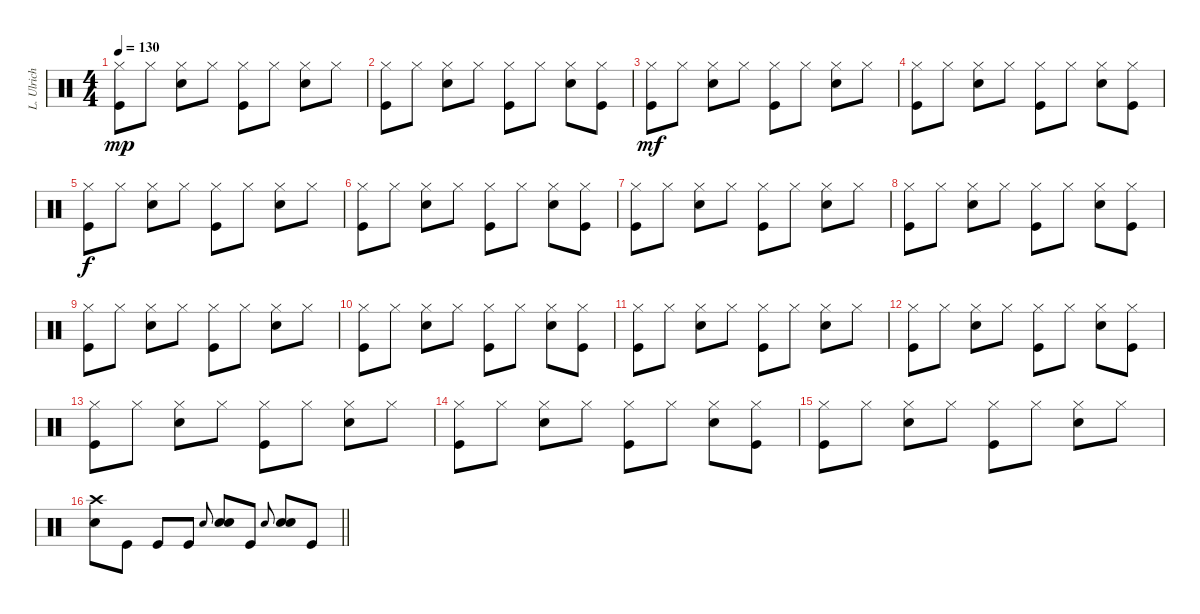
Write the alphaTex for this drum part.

\track ("L. Ulrich" "L. Ulrich") {instrument percussion}
\staff {score}
\articulation defaults
\ts (4 4)
\tempo 130
\clef neutral
\ks c
("Hi-Hat (closed)" "Kick (hit)").8{dy mp} "Hi-Hat (closed)".8 ("Hi-Hat (closed)" "Snare (hit) 2").8 "Hi-Hat (closed)".8 ("Hi-Hat (closed)" "Kick (hit)").8 "Hi-Hat (closed)".8 ("Hi-Hat (closed)" "Snare (hit) 2").8 "Hi-Hat (closed)".8 |
("Hi-Hat (closed)" "Kick (hit)").8 "Hi-Hat (closed)".8 ("Hi-Hat (closed)" "Snare (hit) 2").8 "Hi-Hat (closed)".8 ("Hi-Hat (closed)" "Kick (hit)").8 "Hi-Hat (closed)".8 ("Hi-Hat (closed)" "Snare (hit) 2").8 ("Hi-Hat (closed)" "Kick (hit)").8 |
("Hi-Hat (closed)" "Kick (hit)").8{dy mf} "Hi-Hat (closed)".8 ("Hi-Hat (closed)" "Snare (hit) 2").8 "Hi-Hat (closed)".8 ("Hi-Hat (closed)" "Kick (hit)").8 "Hi-Hat (closed)".8 ("Hi-Hat (closed)" "Snare (hit) 2").8 "Hi-Hat (closed)".8 |
("Hi-Hat (closed)" "Kick (hit)").8 "Hi-Hat (closed)".8 ("Hi-Hat (closed)" "Snare (hit) 2").8 "Hi-Hat (closed)".8 ("Hi-Hat (closed)" "Kick (hit)").8 "Hi-Hat (closed)".8 ("Hi-Hat (closed)" "Snare (hit) 2").8 ("Hi-Hat (closed)" "Kick (hit)").8 |
("Hi-Hat (closed)" "Kick (hit)").8{dy f} "Hi-Hat (closed)".8 ("Hi-Hat (closed)" "Snare (hit) 2").8 "Hi-Hat (closed)".8 ("Hi-Hat (closed)" "Kick (hit)").8 "Hi-Hat (closed)".8 ("Hi-Hat (closed)" "Snare (hit) 2").8 "Hi-Hat (closed)".8 |
("Hi-Hat (closed)" "Kick (hit)").8 "Hi-Hat (closed)".8 ("Hi-Hat (closed)" "Snare (hit) 2").8 "Hi-Hat (closed)".8 ("Hi-Hat (closed)" "Kick (hit)").8 "Hi-Hat (closed)".8 ("Hi-Hat (closed)" "Snare (hit) 2").8 ("Hi-Hat (closed)" "Kick (hit)").8 |
("Hi-Hat (closed)" "Kick (hit)").8 "Hi-Hat (closed)".8 ("Hi-Hat (closed)" "Snare (hit) 2").8 "Hi-Hat (closed)".8 ("Hi-Hat (closed)" "Kick (hit)").8 "Hi-Hat (closed)".8 ("Hi-Hat (closed)" "Snare (hit) 2").8 "Hi-Hat (closed)".8 |
("Hi-Hat (closed)" "Kick (hit)").8 "Hi-Hat (closed)".8 ("Hi-Hat (closed)" "Snare (hit) 2").8 "Hi-Hat (closed)".8 ("Hi-Hat (closed)" "Kick (hit)").8 "Hi-Hat (closed)".8 ("Hi-Hat (closed)" "Snare (hit) 2").8 ("Hi-Hat (closed)" "Kick (hit)").8 |
("Hi-Hat (closed)" "Kick (hit)").8 "Hi-Hat (closed)".8 ("Hi-Hat (closed)" "Snare (hit) 2").8 "Hi-Hat (closed)".8 ("Hi-Hat (closed)" "Kick (hit)").8 "Hi-Hat (closed)".8 ("Hi-Hat (closed)" "Snare (hit) 2").8 "Hi-Hat (closed)".8 |
("Hi-Hat (closed)" "Kick (hit)").8 "Hi-Hat (closed)".8 ("Hi-Hat (closed)" "Snare (hit) 2").8 "Hi-Hat (closed)".8 ("Hi-Hat (closed)" "Kick (hit)").8 "Hi-Hat (closed)".8 ("Hi-Hat (closed)" "Snare (hit) 2").8 ("Hi-Hat (closed)" "Kick (hit)").8 |
("Hi-Hat (closed)" "Kick (hit)").8 "Hi-Hat (closed)".8 ("Hi-Hat (closed)" "Snare (hit) 2").8 "Hi-Hat (closed)".8 ("Hi-Hat (closed)" "Kick (hit)").8 "Hi-Hat (closed)".8 ("Hi-Hat (closed)" "Snare (hit) 2").8 "Hi-Hat (closed)".8 |
("Hi-Hat (closed)" "Kick (hit)").8 "Hi-Hat (closed)".8 ("Hi-Hat (closed)" "Snare (hit) 2").8 "Hi-Hat (closed)".8 ("Hi-Hat (closed)" "Kick (hit)").8 "Hi-Hat (closed)".8 ("Hi-Hat (closed)" "Snare (hit) 2").8 ("Hi-Hat (closed)" "Kick (hit)").8 |
("Hi-Hat (closed)" "Kick (hit)").8 "Hi-Hat (closed)".8 ("Hi-Hat (closed)" "Snare (hit) 2").8 "Hi-Hat (closed)".8 ("Hi-Hat (closed)" "Kick (hit)").8 "Hi-Hat (closed)".8 ("Hi-Hat (closed)" "Snare (hit) 2").8 "Hi-Hat (closed)".8 |
("Hi-Hat (closed)" "Kick (hit)").8 "Hi-Hat (closed)".8 ("Hi-Hat (closed)" "Snare (hit) 2").8 "Hi-Hat (closed)".8 ("Hi-Hat (closed)" "Kick (hit)").8 "Hi-Hat (closed)".8 ("Hi-Hat (closed)" "Snare (hit) 2").8 ("Hi-Hat (closed)" "Kick (hit)").8 |
("Hi-Hat (closed)" "Kick (hit)").8 "Hi-Hat (closed)".8 ("Hi-Hat (closed)" "Snare (hit) 2").8 "Hi-Hat (closed)".8 ("Hi-Hat (closed)" "Kick (hit)").8 "Hi-Hat (closed)".8 ("Hi-Hat (closed)" "Snare (hit) 2").8 "Hi-Hat (closed)".8 |
\barLineRight lightlight
("Crash high (hit)" "Snare (hit) 2").8 "Kick (hit)".8 "Kick (hit)".8 "Kick (hit)".8 "Snare (hit) 2".8{gr onbeat} ("Snare (hit) 2" "Snare (hit) 2").8 "Kick (hit)".8 "Snare (hit) 2".8{gr onbeat} ("Snare (hit) 2" "Snare (hit) 2").8 "Kick (hit)".8
